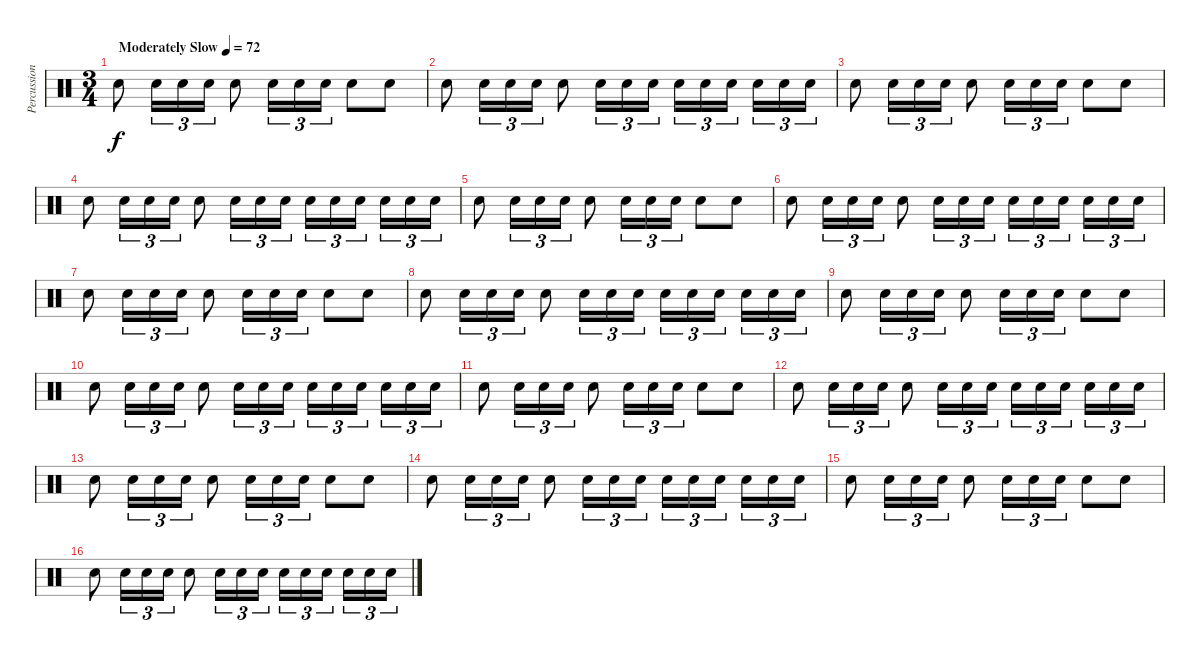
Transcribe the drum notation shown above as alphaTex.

\track ("Percussion" "Percussion") {instrument percussion}
\staff {score}
\articulation defaults
\ts (3 4)
\tempo (72 "Moderately Slow")
\clef neutral
\ks c "Snare (hit) 2".8{dy f} "Snare (hit) 2".16{tu (3 2)} "Snare (hit) 2".16{tu (3 2)} "Snare (hit) 2".16{tu (3 2)} "Snare (hit) 2".8 "Snare (hit) 2".16{tu (3 2)} "Snare (hit) 2".16{tu (3 2)} "Snare (hit) 2".16{tu (3 2)} "Snare (hit) 2".8 "Snare (hit) 2".8
|
"Snare (hit) 2".8 "Snare (hit) 2".16{tu (3 2)} "Snare (hit) 2".16{tu (3 2)} "Snare (hit) 2".16{tu (3 2)} "Snare (hit) 2".8 "Snare (hit) 2".16{tu (3 2)} "Snare (hit) 2".16{tu (3 2)} "Snare (hit) 2".16{tu (3 2)} "Snare (hit) 2".16{tu (3 2)} "Snare (hit) 2".16{tu (3 2)} "Snare (hit) 2".16{tu (3 2) beam splitsecondary} "Snare (hit) 2".16{tu (3 2)} "Snare (hit) 2".16{tu (3 2)} "Snare (hit) 2".16{tu (3 2)} |
"Snare (hit) 2".8 "Snare (hit) 2".16{tu (3 2)} "Snare (hit) 2".16{tu (3 2)} "Snare (hit) 2".16{tu (3 2)} "Snare (hit) 2".8 "Snare (hit) 2".16{tu (3 2)} "Snare (hit) 2".16{tu (3 2)} "Snare (hit) 2".16{tu (3 2)} "Snare (hit) 2".8 "Snare (hit) 2".8 |
"Snare (hit) 2".8 "Snare (hit) 2".16{tu (3 2)} "Snare (hit) 2".16{tu (3 2)} "Snare (hit) 2".16{tu (3 2)} "Snare (hit) 2".8 "Snare (hit) 2".16{tu (3 2)} "Snare (hit) 2".16{tu (3 2)} "Snare (hit) 2".16{tu (3 2)} "Snare (hit) 2".16{tu (3 2)} "Snare (hit) 2".16{tu (3 2)} "Snare (hit) 2".16{tu (3 2) beam splitsecondary} "Snare (hit) 2".16{tu (3 2)} "Snare (hit) 2".16{tu (3 2)} "Snare (hit) 2".16{tu (3 2)} |
"Snare (hit) 2".8 "Snare (hit) 2".16{tu (3 2)} "Snare (hit) 2".16{tu (3 2)} "Snare (hit) 2".16{tu (3 2)} "Snare (hit) 2".8 "Snare (hit) 2".16{tu (3 2)} "Snare (hit) 2".16{tu (3 2)} "Snare (hit) 2".16{tu (3 2)} "Snare (hit) 2".8 "Snare (hit) 2".8 |
"Snare (hit) 2".8 "Snare (hit) 2".16{tu (3 2)} "Snare (hit) 2".16{tu (3 2)} "Snare (hit) 2".16{tu (3 2)} "Snare (hit) 2".8 "Snare (hit) 2".16{tu (3 2)} "Snare (hit) 2".16{tu (3 2)} "Snare (hit) 2".16{tu (3 2)} "Snare (hit) 2".16{tu (3 2)} "Snare (hit) 2".16{tu (3 2)} "Snare (hit) 2".16{tu (3 2) beam splitsecondary} "Snare (hit) 2".16{tu (3 2)} "Snare (hit) 2".16{tu (3 2)} "Snare (hit) 2".16{tu (3 2)} |
"Snare (hit) 2".8 "Snare (hit) 2".16{tu (3 2)} "Snare (hit) 2".16{tu (3 2)} "Snare (hit) 2".16{tu (3 2)} "Snare (hit) 2".8 "Snare (hit) 2".16{tu (3 2)} "Snare (hit) 2".16{tu (3 2)} "Snare (hit) 2".16{tu (3 2)} "Snare (hit) 2".8 "Snare (hit) 2".8 |
"Snare (hit) 2".8 "Snare (hit) 2".16{tu (3 2)} "Snare (hit) 2".16{tu (3 2)} "Snare (hit) 2".16{tu (3 2)} "Snare (hit) 2".8 "Snare (hit) 2".16{tu (3 2)} "Snare (hit) 2".16{tu (3 2)} "Snare (hit) 2".16{tu (3 2)} "Snare (hit) 2".16{tu (3 2)} "Snare (hit) 2".16{tu (3 2)} "Snare (hit) 2".16{tu (3 2) beam splitsecondary} "Snare (hit) 2".16{tu (3 2)} "Snare (hit) 2".16{tu (3 2)} "Snare (hit) 2".16{tu (3 2)} |
"Snare (hit) 2".8 "Snare (hit) 2".16{tu (3 2)} "Snare (hit) 2".16{tu (3 2)} "Snare (hit) 2".16{tu (3 2)} "Snare (hit) 2".8 "Snare (hit) 2".16{tu (3 2)} "Snare (hit) 2".16{tu (3 2)} "Snare (hit) 2".16{tu (3 2)} "Snare (hit) 2".8 "Snare (hit) 2".8 |
"Snare (hit) 2".8 "Snare (hit) 2".16{tu (3 2)} "Snare (hit) 2".16{tu (3 2)} "Snare (hit) 2".16{tu (3 2)} "Snare (hit) 2".8 "Snare (hit) 2".16{tu (3 2)} "Snare (hit) 2".16{tu (3 2)} "Snare (hit) 2".16{tu (3 2)} "Snare (hit) 2".16{tu (3 2)} "Snare (hit) 2".16{tu (3 2)} "Snare (hit) 2".16{tu (3 2) beam splitsecondary} "Snare (hit) 2".16{tu (3 2)} "Snare (hit) 2".16{tu (3 2)} "Snare (hit) 2".16{tu (3 2)} |
"Snare (hit) 2".8 "Snare (hit) 2".16{tu (3 2)} "Snare (hit) 2".16{tu (3 2)} "Snare (hit) 2".16{tu (3 2)} "Snare (hit) 2".8 "Snare (hit) 2".16{tu (3 2)} "Snare (hit) 2".16{tu (3 2)} "Snare (hit) 2".16{tu (3 2)} "Snare (hit) 2".8 "Snare (hit) 2".8 |
"Snare (hit) 2".8 "Snare (hit) 2".16{tu (3 2)} "Snare (hit) 2".16{tu (3 2)} "Snare (hit) 2".16{tu (3 2)} "Snare (hit) 2".8 "Snare (hit) 2".16{tu (3 2)} "Snare (hit) 2".16{tu (3 2)} "Snare (hit) 2".16{tu (3 2)} "Snare (hit) 2".16{tu (3 2)} "Snare (hit) 2".16{tu (3 2)} "Snare (hit) 2".16{tu (3 2) beam splitsecondary} "Snare (hit) 2".16{tu (3 2)} "Snare (hit) 2".16{tu (3 2)} "Snare (hit) 2".16{tu (3 2)} |
"Snare (hit) 2".8 "Snare (hit) 2".16{tu (3 2)} "Snare (hit) 2".16{tu (3 2)} "Snare (hit) 2".16{tu (3 2)} "Snare (hit) 2".8 "Snare (hit) 2".16{tu (3 2)} "Snare (hit) 2".16{tu (3 2)} "Snare (hit) 2".16{tu (3 2)} "Snare (hit) 2".8 "Snare (hit) 2".8 |
"Snare (hit) 2".8 "Snare (hit) 2".16{tu (3 2)} "Snare (hit) 2".16{tu (3 2)} "Snare (hit) 2".16{tu (3 2)} "Snare (hit) 2".8 "Snare (hit) 2".16{tu (3 2)} "Snare (hit) 2".16{tu (3 2)} "Snare (hit) 2".16{tu (3 2)} "Snare (hit) 2".16{tu (3 2)} "Snare (hit) 2".16{tu (3 2)} "Snare (hit) 2".16{tu (3 2) beam splitsecondary} "Snare (hit) 2".16{tu (3 2)} "Snare (hit) 2".16{tu (3 2)} "Snare (hit) 2".16{tu (3 2)} |
"Snare (hit) 2".8 "Snare (hit) 2".16{tu (3 2)} "Snare (hit) 2".16{tu (3 2)} "Snare (hit) 2".16{tu (3 2)} "Snare (hit) 2".8 "Snare (hit) 2".16{tu (3 2)} "Snare (hit) 2".16{tu (3 2)} "Snare (hit) 2".16{tu (3 2)} "Snare (hit) 2".8 "Snare (hit) 2".8 |
"Snare (hit) 2".8 "Snare (hit) 2".16{tu (3 2)} "Snare (hit) 2".16{tu (3 2)} "Snare (hit) 2".16{tu (3 2)} "Snare (hit) 2".8 "Snare (hit) 2".16{tu (3 2)} "Snare (hit) 2".16{tu (3 2)} "Snare (hit) 2".16{tu (3 2)} "Snare (hit) 2".16{tu (3 2)} "Snare (hit) 2".16{tu (3 2)} "Snare (hit) 2".16{tu (3 2) beam splitsecondary} "Snare (hit) 2".16{tu (3 2)} "Snare (hit) 2".16{tu (3 2)} "Snare (hit) 2".16{tu (3 2)}
